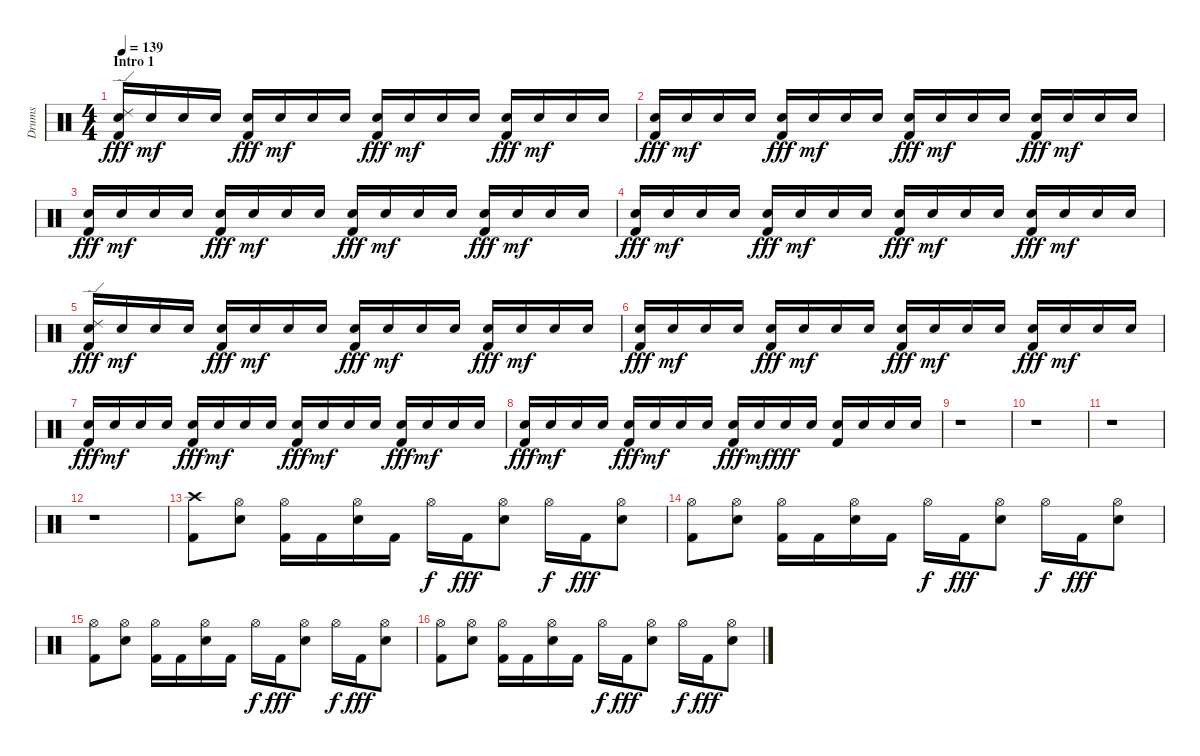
\track ("Drums" "Drums") {instrument percussion}
\staff {score}
\articulation defaults
\ts (4 4)
\section ("" "Intro 1")
\tempo 139
\clef neutral
\ks c
("Ride (edge) 2" "Electric Snare (hit)" "Kick (hit) 2").16{dy fff} "Electric Snare (hit)".16{dy mf} "Electric Snare (hit)".16 "Electric Snare (hit)".16 ("Electric Snare (hit)" "Kick (hit) 2").16{dy fff} "Electric Snare (hit)".16{dy mf} "Electric Snare (hit)".16 "Electric Snare (hit)".16 ("Electric Snare (hit)" "Kick (hit) 2").16{dy fff} "Electric Snare (hit)".16{dy mf} "Electric Snare (hit)".16 "Electric Snare (hit)".16 ("Electric Snare (hit)" "Kick (hit) 2").16{dy fff} "Electric Snare (hit)".16{dy mf} "Electric Snare (hit)".16 "Electric Snare (hit)".16 |
("Electric Snare (hit)" "Kick (hit) 2").16{dy fff} "Electric Snare (hit)".16{dy mf} "Electric Snare (hit)".16 "Electric Snare (hit)".16 ("Electric Snare (hit)" "Kick (hit) 2").16{dy fff} "Electric Snare (hit)".16{dy mf} "Electric Snare (hit)".16 "Electric Snare (hit)".16 ("Electric Snare (hit)" "Kick (hit) 2").16{dy fff} "Electric Snare (hit)".16{dy mf} "Electric Snare (hit)".16 "Electric Snare (hit)".16 ("Electric Snare (hit)" "Kick (hit) 2").16{dy fff} "Electric Snare (hit)".16{dy mf} "Electric Snare (hit)".16 "Electric Snare (hit)".16 |
("Electric Snare (hit)" "Kick (hit) 2").16{dy fff} "Electric Snare (hit)".16{dy mf} "Electric Snare (hit)".16 "Electric Snare (hit)".16 ("Electric Snare (hit)" "Kick (hit) 2").16{dy fff} "Electric Snare (hit)".16{dy mf} "Electric Snare (hit)".16 "Electric Snare (hit)".16 ("Electric Snare (hit)" "Kick (hit) 2").16{dy fff} "Electric Snare (hit)".16{dy mf} "Electric Snare (hit)".16 "Electric Snare (hit)".16 ("Electric Snare (hit)" "Kick (hit) 2").16{dy fff} "Electric Snare (hit)".16{dy mf} "Electric Snare (hit)".16 "Electric Snare (hit)".16 |
("Electric Snare (hit)" "Kick (hit) 2").16{dy fff} "Electric Snare (hit)".16{dy mf} "Electric Snare (hit)".16 "Electric Snare (hit)".16 ("Electric Snare (hit)" "Kick (hit) 2").16{dy fff} "Electric Snare (hit)".16{dy mf} "Electric Snare (hit)".16 "Electric Snare (hit)".16 ("Electric Snare (hit)" "Kick (hit) 2").16{dy fff} "Electric Snare (hit)".16{dy mf} "Electric Snare (hit)".16 "Electric Snare (hit)".16 ("Electric Snare (hit)" "Kick (hit) 2").16{dy fff} "Electric Snare (hit)".16{dy mf} "Electric Snare (hit)".16 "Electric Snare (hit)".16 |
("Ride (edge) 2" "Electric Snare (hit)" "Kick (hit) 2").16{dy fff} "Electric Snare (hit)".16{dy mf} "Electric Snare (hit)".16 "Electric Snare (hit)".16 ("Electric Snare (hit)" "Kick (hit) 2").16{dy fff} "Electric Snare (hit)".16{dy mf} "Electric Snare (hit)".16 "Electric Snare (hit)".16 ("Electric Snare (hit)" "Kick (hit) 2").16{dy fff} "Electric Snare (hit)".16{dy mf} "Electric Snare (hit)".16 "Electric Snare (hit)".16 ("Electric Snare (hit)" "Kick (hit) 2").16{dy fff} "Electric Snare (hit)".16{dy mf} "Electric Snare (hit)".16 "Electric Snare (hit)".16 |
("Electric Snare (hit)" "Kick (hit) 2").16{dy fff} "Electric Snare (hit)".16{dy mf} "Electric Snare (hit)".16 "Electric Snare (hit)".16 ("Electric Snare (hit)" "Kick (hit) 2").16{dy fff} "Electric Snare (hit)".16{dy mf} "Electric Snare (hit)".16 "Electric Snare (hit)".16 ("Electric Snare (hit)" "Kick (hit) 2").16{dy fff} "Electric Snare (hit)".16{dy mf} "Electric Snare (hit)".16 "Electric Snare (hit)".16 ("Electric Snare (hit)" "Kick (hit) 2").16{dy fff} "Electric Snare (hit)".16{dy mf} "Electric Snare (hit)".16 "Electric Snare (hit)".16 |
("Electric Snare (hit)" "Kick (hit) 2").16{dy fff} "Electric Snare (hit)".16{dy mf} "Electric Snare (hit)".16 "Electric Snare (hit)".16 ("Electric Snare (hit)" "Kick (hit) 2").16{dy fff} "Electric Snare (hit)".16{dy mf} "Electric Snare (hit)".16 "Electric Snare (hit)".16 ("Electric Snare (hit)" "Kick (hit) 2").16{dy fff} "Electric Snare (hit)".16{dy mf} "Electric Snare (hit)".16 "Electric Snare (hit)".16 ("Electric Snare (hit)" "Kick (hit) 2").16{dy fff} "Electric Snare (hit)".16{dy mf} "Electric Snare (hit)".16 "Electric Snare (hit)".16 |
("Electric Snare (hit)" "Kick (hit) 2").16{dy fff} "Electric Snare (hit)".16{dy mf} "Electric Snare (hit)".16 "Electric Snare (hit)".16 ("Electric Snare (hit)" "Kick (hit) 2").16{dy fff} "Electric Snare (hit)".16{dy mf} "Electric Snare (hit)".16 "Electric Snare (hit)".16 ("Electric Snare (hit)" "Kick (hit) 2").16{dy fff} "Electric Snare (hit)".16{dy mf} "Electric Snare (hit)".16{dy fff} "Electric Snare (hit)".16 ("Electric Snare (hit)" "Kick (hit) 2").16 "Electric Snare (hit)".16 "Electric Snare (hit)".16 "Electric Snare (hit)".16 |
r.1 |
r.1 |
r.1 |
r.1 |
("Crash high (hit)" "Kick (hit) 2").8 ("Hi-Hat (open)" "Electric Snare (hit)").8 ("Hi-Hat (open)" "Kick (hit) 2").16 "Kick (hit) 2".16 ("Hi-Hat (open)" "Electric Snare (hit)").16 "Kick (hit) 2".16 "Hi-Hat (open)".16{dy f} "Kick (hit) 2".16{dy fff} ("Hi-Hat (open)" "Electric Snare (hit)").8 "Hi-Hat (open)".16{dy f} "Kick (hit) 2".16{dy fff} ("Hi-Hat (open)" "Electric Snare (hit)").8 |
("Hi-Hat (open)" "Kick (hit) 2").8 ("Hi-Hat (open)" "Electric Snare (hit)").8 ("Hi-Hat (open)" "Kick (hit) 2").16 "Kick (hit) 2".16 ("Hi-Hat (open)" "Electric Snare (hit)").16 "Kick (hit) 2".16 "Hi-Hat (open)".16{dy f} "Kick (hit) 2".16{dy fff} ("Hi-Hat (open)" "Electric Snare (hit)").8 "Hi-Hat (open)".16{dy f} "Kick (hit) 2".16{dy fff} ("Hi-Hat (open)" "Electric Snare (hit)").8 |
("Hi-Hat (open)" "Kick (hit) 2").8 ("Hi-Hat (open)" "Electric Snare (hit)").8 ("Hi-Hat (open)" "Kick (hit) 2").16 "Kick (hit) 2".16 ("Hi-Hat (open)" "Electric Snare (hit)").16 "Kick (hit) 2".16 "Hi-Hat (open)".16{dy f} "Kick (hit) 2".16{dy fff} ("Hi-Hat (open)" "Electric Snare (hit)").8 "Hi-Hat (open)".16{dy f} "Kick (hit) 2".16{dy fff} ("Hi-Hat (open)" "Electric Snare (hit)").8 |
("Hi-Hat (open)" "Kick (hit) 2").8 ("Hi-Hat (open)" "Electric Snare (hit)").8 ("Hi-Hat (open)" "Kick (hit) 2").16 "Kick (hit) 2".16 ("Hi-Hat (open)" "Electric Snare (hit)").16 "Kick (hit) 2".16 "Hi-Hat (open)".16{dy f} "Kick (hit) 2".16{dy fff} ("Hi-Hat (open)" "Electric Snare (hit)").8 "Hi-Hat (open)".16{dy f} "Kick (hit) 2".16{dy fff} ("Hi-Hat (open)" "Electric Snare (hit)").8
